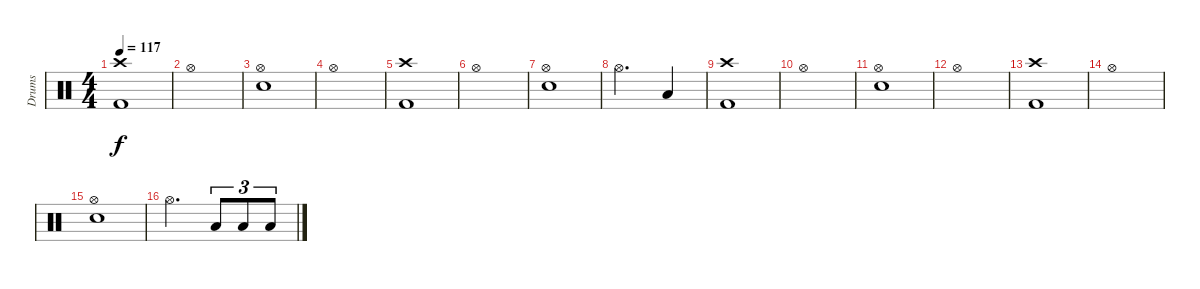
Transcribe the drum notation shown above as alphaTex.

\track ("Drums" "Drums") {instrument percussion}
\staff {score}
\articulation defaults
\ts (4 4)
\tempo 117
\clef neutral
\ks c
("Crash high (hit)" "Kick (hit) 2").1{dy f} |
"Hi-Hat (open)".1 |
("Hi-Hat (open)" "Snare (hit) 2").1 |
"Hi-Hat (open)".1 |
("Crash high (hit)" "Kick (hit) 2").1 |
"Hi-Hat (open)".1 |
("Hi-Hat (open)" "Snare (hit) 2").1 |
"Hi-Hat (open)".2{d} "Low Tom (hit)".4 |
("Crash high (hit)" "Kick (hit) 2").1 |
"Hi-Hat (open)".1 |
("Hi-Hat (open)" "Snare (hit) 2").1 |
"Hi-Hat (open)".1 |
("Crash high (hit)" "Kick (hit) 2").1 |
"Hi-Hat (open)".1 |
("Hi-Hat (open)" "Snare (hit) 2").1 |
"Hi-Hat (open)".2{d} "Low Tom (hit)".8{tu (3 2)} "Low Tom (hit)".8{tu (3 2)} "Low Tom (hit)".8{tu (3 2)}
